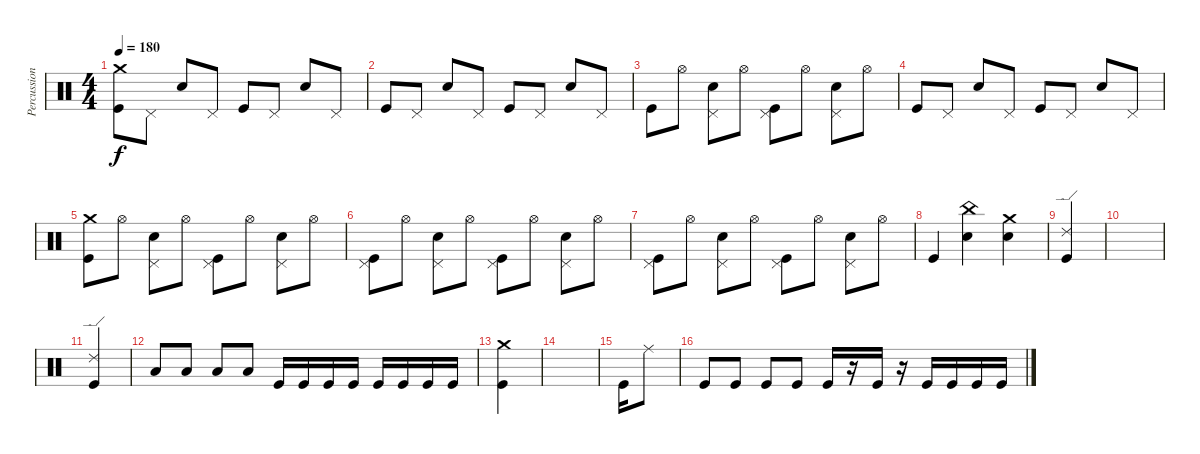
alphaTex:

\track ("Percussions" "Percussion") {instrument percussion}
\staff {score}
\articulation defaults
\ts (4 4)
\tempo 180
\clef neutral
\ks c
("Crash medium (hit)" "Kick (hit)").8{dy f} "Pedal Hi-Hat (hit)".8 "Snare (hit) 2".8 "Pedal Hi-Hat (hit)".8 "Kick (hit)".8 "Pedal Hi-Hat (hit)".8 "Snare (hit) 2".8 "Pedal Hi-Hat (hit)".8 |
"Kick (hit)".8 "Pedal Hi-Hat (hit)".8 "Snare (hit) 2".8 "Pedal Hi-Hat (hit)".8 "Kick (hit)".8 "Pedal Hi-Hat (hit)".8 "Snare (hit) 2".8 "Pedal Hi-Hat (hit)".8 |
"Kick (hit)".8 "Hi-Hat (open)".8 ("Pedal Hi-Hat (hit)" "Snare (hit) 2").8 "Hi-Hat (open)".8 ("Pedal Hi-Hat (hit)" "Kick (hit)").8 "Hi-Hat (open)".8 ("Pedal Hi-Hat (hit)" "Snare (hit) 2").8 "Hi-Hat (open)".8 |
"Kick (hit)".8 "Pedal Hi-Hat (hit)".8 "Snare (hit) 2".8 "Pedal Hi-Hat (hit)".8 "Kick (hit)".8 "Pedal Hi-Hat (hit)".8 "Snare (hit) 2".8 "Pedal Hi-Hat (hit)".8 |
("Crash medium (hit)" "Kick (hit)").8 "Hi-Hat (open)".8 ("Pedal Hi-Hat (hit)" "Snare (hit) 2").8 "Hi-Hat (open)".8 ("Pedal Hi-Hat (hit)" "Kick (hit)").8 "Hi-Hat (open)".8 ("Pedal Hi-Hat (hit)" "Snare (hit) 2").8 "Hi-Hat (open)".8 |
("Pedal Hi-Hat (hit)" "Kick (hit)").8 "Hi-Hat (open)".8 ("Pedal Hi-Hat (hit)" "Snare (hit) 2").8 "Hi-Hat (open)".8 ("Pedal Hi-Hat (hit)" "Kick (hit)").8 "Hi-Hat (open)".8 ("Pedal Hi-Hat (hit)" "Snare (hit) 2").8 "Hi-Hat (open)".8 |
("Pedal Hi-Hat (hit)" "Kick (hit)").8 "Hi-Hat (open)".8 ("Pedal Hi-Hat (hit)" "Snare (hit) 2").8 "Hi-Hat (open)".8 ("Pedal Hi-Hat (hit)" "Kick (hit)").8 "Hi-Hat (open)".8 ("Pedal Hi-Hat (hit)" "Snare (hit) 2").8 "Hi-Hat (open)".8 |
"Kick (hit)".4 ("China (hit)" "Snare (hit) 2").4 ("Snare (hit) 2" "Crash medium (hit)").4 |
("Ride (edge) 2" "Kick (hit)").4 |
|
("Ride (edge) 2" "Kick (hit)").4 |
"Low Tom (hit)".8 "Low Tom (hit)".8 "Low Tom (hit)".8 "Low Tom (hit)".8 "Kick (hit)".16 "Kick (hit)".16 "Kick (hit)".16 "Kick (hit)".16 "Kick (hit)".16 "Kick (hit)".16 "Kick (hit)".16 "Kick (hit)".16 |
("Crash medium (hit)" "Kick (hit)").4 |
|
"Kick (hit)".16 "Ride (middle)".8 |
"Kick (hit)".8 "Kick (hit)".8 "Kick (hit)".8 "Kick (hit)".8 "Kick (hit)".16 r.16 "Kick (hit)".16 r.16 "Kick (hit)".16 "Kick (hit)".16 "Kick (hit)".16 "Kick (hit)".16
